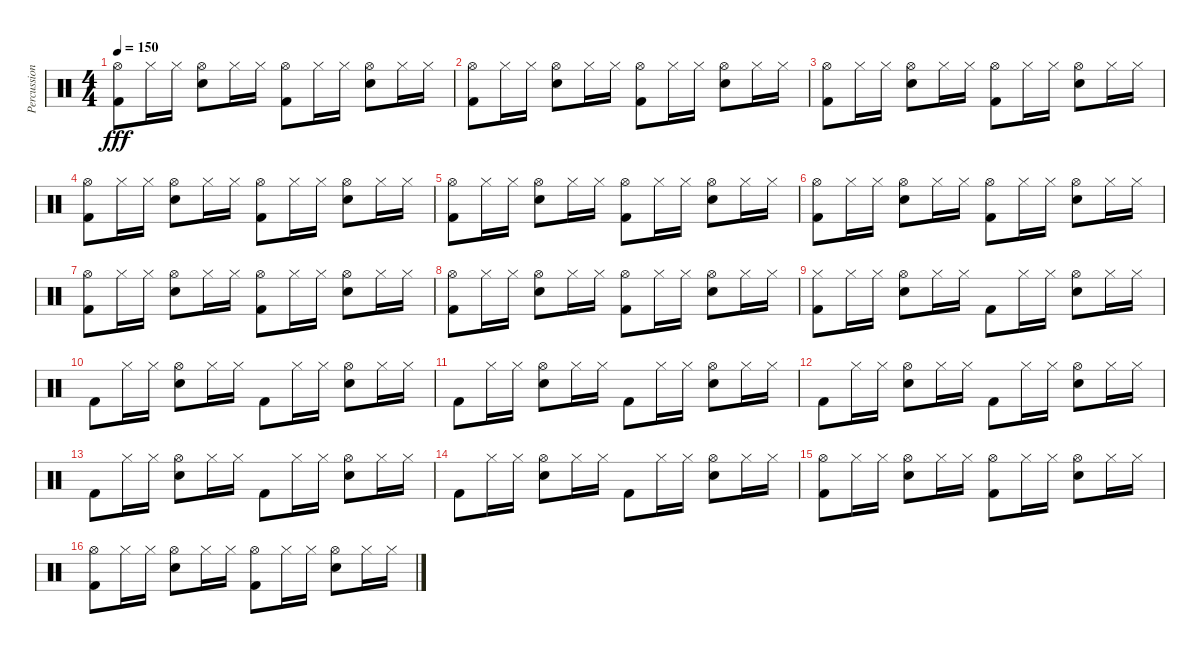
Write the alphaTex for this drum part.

\track ("Percussion" "Percussion") {instrument percussion}
\staff {score}
\articulation defaults
\ts (4 4)
\tempo 150
\clef neutral
\ks c
("Kick (hit) 2" "Hi-Hat (open)").8{dy fff} "Hi-Hat (closed)".16 "Hi-Hat (closed)".16 ("Snare (hit) 2" "Hi-Hat (open)").8 "Hi-Hat (closed)".16 "Hi-Hat (closed)".16 ("Kick (hit) 2" "Hi-Hat (open)").8 "Hi-Hat (closed)".16 "Hi-Hat (closed)".16 ("Snare (hit) 2" "Hi-Hat (open)").8 "Hi-Hat (closed)".16 "Hi-Hat (closed)".16 |
("Kick (hit) 2" "Hi-Hat (open)").8 "Hi-Hat (closed)".16 "Hi-Hat (closed)".16 ("Snare (hit) 2" "Hi-Hat (open)").8 "Hi-Hat (closed)".16 "Hi-Hat (closed)".16 ("Kick (hit) 2" "Hi-Hat (open)").8 "Hi-Hat (closed)".16 "Hi-Hat (closed)".16 ("Snare (hit) 2" "Hi-Hat (open)").8 "Hi-Hat (closed)".16 "Hi-Hat (closed)".16 |
("Kick (hit) 2" "Hi-Hat (open)").8 "Hi-Hat (closed)".16 "Hi-Hat (closed)".16 ("Snare (hit) 2" "Hi-Hat (open)").8 "Hi-Hat (closed)".16 "Hi-Hat (closed)".16 ("Kick (hit) 2" "Hi-Hat (open)").8 "Hi-Hat (closed)".16 "Hi-Hat (closed)".16 ("Snare (hit) 2" "Hi-Hat (open)").8 "Hi-Hat (closed)".16 "Hi-Hat (closed)".16 |
("Kick (hit) 2" "Hi-Hat (open)").8 "Hi-Hat (closed)".16 "Hi-Hat (closed)".16 ("Snare (hit) 2" "Hi-Hat (open)").8 "Hi-Hat (closed)".16 "Hi-Hat (closed)".16 ("Kick (hit) 2" "Hi-Hat (open)").8 "Hi-Hat (closed)".16 "Hi-Hat (closed)".16 ("Snare (hit) 2" "Hi-Hat (open)").8 "Hi-Hat (closed)".16 "Hi-Hat (closed)".16 |
("Kick (hit) 2" "Hi-Hat (open)").8 "Hi-Hat (closed)".16 "Hi-Hat (closed)".16 ("Snare (hit) 2" "Hi-Hat (open)").8 "Hi-Hat (closed)".16 "Hi-Hat (closed)".16 ("Kick (hit) 2" "Hi-Hat (open)").8 "Hi-Hat (closed)".16 "Hi-Hat (closed)".16 ("Snare (hit) 2" "Hi-Hat (open)").8 "Hi-Hat (closed)".16 "Hi-Hat (closed)".16 |
("Kick (hit) 2" "Hi-Hat (open)").8 "Hi-Hat (closed)".16 "Hi-Hat (closed)".16 ("Snare (hit) 2" "Hi-Hat (open)").8 "Hi-Hat (closed)".16 "Hi-Hat (closed)".16 ("Kick (hit) 2" "Hi-Hat (open)").8 "Hi-Hat (closed)".16 "Hi-Hat (closed)".16 ("Snare (hit) 2" "Hi-Hat (open)").8 "Hi-Hat (closed)".16 "Hi-Hat (closed)".16 |
("Kick (hit) 2" "Hi-Hat (open)").8 "Hi-Hat (closed)".16 "Hi-Hat (closed)".16 ("Snare (hit) 2" "Hi-Hat (open)").8 "Hi-Hat (closed)".16 "Hi-Hat (closed)".16 ("Kick (hit) 2" "Hi-Hat (open)").8 "Hi-Hat (closed)".16 "Hi-Hat (closed)".16 ("Snare (hit) 2" "Hi-Hat (open)").8 "Hi-Hat (closed)".16 "Hi-Hat (closed)".16 |
("Kick (hit) 2" "Hi-Hat (open)").8 "Hi-Hat (closed)".16 "Hi-Hat (closed)".16 ("Snare (hit) 2" "Hi-Hat (open)").8 "Hi-Hat (closed)".16 "Hi-Hat (closed)".16 ("Kick (hit) 2" "Hi-Hat (open)").8 "Hi-Hat (closed)".16 "Hi-Hat (closed)".16 ("Snare (hit) 2" "Hi-Hat (open)").8 "Hi-Hat (closed)".16 "Hi-Hat (closed)".16 |
("Kick (hit) 2" "Hi-Hat (closed)").8 "Hi-Hat (closed)".16 "Hi-Hat (closed)".16 ("Snare (hit) 2" "Hi-Hat (open)").8 "Hi-Hat (closed)".16 "Hi-Hat (closed)".16 "Kick (hit) 2".8 "Hi-Hat (closed)".16 "Hi-Hat (closed)".16 ("Snare (hit) 2" "Hi-Hat (open)").8 "Hi-Hat (closed)".16 "Hi-Hat (closed)".16 |
"Kick (hit) 2".8 "Hi-Hat (closed)".16 "Hi-Hat (closed)".16 ("Snare (hit) 2" "Hi-Hat (open)").8 "Hi-Hat (closed)".16 "Hi-Hat (closed)".16 "Kick (hit) 2".8 "Hi-Hat (closed)".16 "Hi-Hat (closed)".16 ("Snare (hit) 2" "Hi-Hat (open)").8 "Hi-Hat (closed)".16 "Hi-Hat (closed)".16 |
"Kick (hit) 2".8 "Hi-Hat (closed)".16 "Hi-Hat (closed)".16 ("Snare (hit) 2" "Hi-Hat (open)").8 "Hi-Hat (closed)".16 "Hi-Hat (closed)".16 "Kick (hit) 2".8 "Hi-Hat (closed)".16 "Hi-Hat (closed)".16 ("Snare (hit) 2" "Hi-Hat (open)").8 "Hi-Hat (closed)".16 "Hi-Hat (closed)".16 |
"Kick (hit) 2".8 "Hi-Hat (closed)".16 "Hi-Hat (closed)".16 ("Snare (hit) 2" "Hi-Hat (open)").8 "Hi-Hat (closed)".16 "Hi-Hat (closed)".16 "Kick (hit) 2".8 "Hi-Hat (closed)".16 "Hi-Hat (closed)".16 ("Snare (hit) 2" "Hi-Hat (open)").8 "Hi-Hat (closed)".16 "Hi-Hat (closed)".16 |
"Kick (hit) 2".8 "Hi-Hat (closed)".16 "Hi-Hat (closed)".16 ("Snare (hit) 2" "Hi-Hat (open)").8 "Hi-Hat (closed)".16 "Hi-Hat (closed)".16 "Kick (hit) 2".8 "Hi-Hat (closed)".16 "Hi-Hat (closed)".16 ("Snare (hit) 2" "Hi-Hat (open)").8 "Hi-Hat (closed)".16 "Hi-Hat (closed)".16 |
"Kick (hit) 2".8 "Hi-Hat (closed)".16 "Hi-Hat (closed)".16 ("Snare (hit) 2" "Hi-Hat (open)").8 "Hi-Hat (closed)".16 "Hi-Hat (closed)".16 "Kick (hit) 2".8 "Hi-Hat (closed)".16 "Hi-Hat (closed)".16 ("Snare (hit) 2" "Hi-Hat (open)").8 "Hi-Hat (closed)".16 "Hi-Hat (closed)".16 |
("Kick (hit) 2" "Hi-Hat (open)").8 "Hi-Hat (closed)".16 "Hi-Hat (closed)".16 ("Snare (hit) 2" "Hi-Hat (open)").8 "Hi-Hat (closed)".16 "Hi-Hat (closed)".16 ("Kick (hit) 2" "Hi-Hat (open)").8 "Hi-Hat (closed)".16 "Hi-Hat (closed)".16 ("Snare (hit) 2" "Hi-Hat (open)").8 "Hi-Hat (closed)".16 "Hi-Hat (closed)".16 |
("Kick (hit) 2" "Hi-Hat (open)").8 "Hi-Hat (closed)".16 "Hi-Hat (closed)".16 ("Snare (hit) 2" "Hi-Hat (open)").8 "Hi-Hat (closed)".16 "Hi-Hat (closed)".16 ("Kick (hit) 2" "Hi-Hat (open)").8 "Hi-Hat (closed)".16 "Hi-Hat (closed)".16 ("Snare (hit) 2" "Hi-Hat (open)").8 "Hi-Hat (closed)".16 "Hi-Hat (closed)".16
